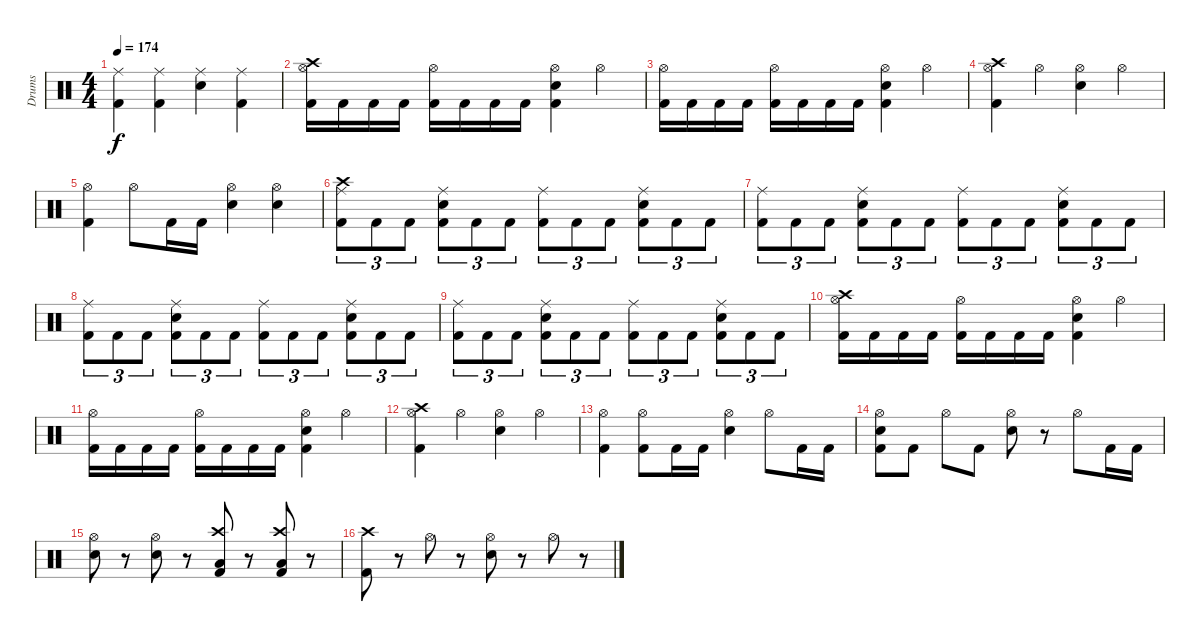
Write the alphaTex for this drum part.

\track ("Drums" "Drums") {instrument percussion}
\staff {score}
\articulation defaults
\ts (4 4)
\tempo 174
\clef neutral
\ks c
("Ride (middle)" "Kick (hit) 2").4{dy f} ("Ride (middle)" "Kick (hit) 2").4 ("Ride (middle)" "Snare (hit) 2").4 ("Ride (middle)" "Kick (hit) 2").4 |
("Hi-Hat (open)" "Crash high (hit)" "Kick (hit) 2").16 "Kick (hit) 2".16 "Kick (hit) 2".16 "Kick (hit) 2".16 ("Hi-Hat (open)" "Kick (hit) 2").16 "Kick (hit) 2".16 "Kick (hit) 2".16 "Kick (hit) 2".16 ("Hi-Hat (open)" "Snare (hit) 2" "Kick (hit) 2").4 "Hi-Hat (open)".4 |
("Hi-Hat (open)" "Kick (hit) 2").16 "Kick (hit) 2".16 "Kick (hit) 2".16 "Kick (hit) 2".16 ("Hi-Hat (open)" "Kick (hit) 2").16 "Kick (hit) 2".16 "Kick (hit) 2".16 "Kick (hit) 2".16 ("Hi-Hat (open)" "Snare (hit) 2" "Kick (hit) 2").4 "Hi-Hat (open)".4 |
("Hi-Hat (open)" "Crash high (hit)" "Kick (hit) 2").4 "Hi-Hat (open)".4 ("Hi-Hat (open)" "Snare (hit) 2").4 "Hi-Hat (open)".4 |
("Hi-Hat (open)" "Kick (hit) 2").4 "Hi-Hat (open)".8 "Kick (hit) 2".16 "Kick (hit) 2".16 ("Hi-Hat (open)" "Snare (hit) 2").4 ("Hi-Hat (open)" "Snare (hit) 2").4 |
("Crash high (hit)" "Ride (middle)" "Kick (hit) 2").8{tu (3 2)} "Kick (hit) 2".8{tu (3 2)} "Kick (hit) 2".8{tu (3 2)} ("Ride (middle)" "Snare (hit) 2" "Kick (hit) 2").8{tu (3 2)} "Kick (hit) 2".8{tu (3 2)} "Kick (hit) 2".8{tu (3 2)} ("Ride (middle)" "Kick (hit) 2").8{tu (3 2)} "Kick (hit) 2".8{tu (3 2)} "Kick (hit) 2".8{tu (3 2)} ("Ride (middle)" "Snare (hit) 2" "Kick (hit) 2").8{tu (3 2)} "Kick (hit) 2".8{tu (3 2)} "Kick (hit) 2".8{tu (3 2)} |
("Ride (middle)" "Kick (hit) 2").8{tu (3 2)} "Kick (hit) 2".8{tu (3 2)} "Kick (hit) 2".8{tu (3 2)} ("Ride (middle)" "Snare (hit) 2" "Kick (hit) 2").8{tu (3 2)} "Kick (hit) 2".8{tu (3 2)} "Kick (hit) 2".8{tu (3 2)} ("Ride (middle)" "Kick (hit) 2").8{tu (3 2)} "Kick (hit) 2".8{tu (3 2)} "Kick (hit) 2".8{tu (3 2)} ("Ride (middle)" "Snare (hit) 2" "Kick (hit) 2").8{tu (3 2)} "Kick (hit) 2".8{tu (3 2)} "Kick (hit) 2".8{tu (3 2)} |
("Ride (middle)" "Kick (hit) 2").8{tu (3 2)} "Kick (hit) 2".8{tu (3 2)} "Kick (hit) 2".8{tu (3 2)} ("Ride (middle)" "Snare (hit) 2" "Kick (hit) 2").8{tu (3 2)} "Kick (hit) 2".8{tu (3 2)} "Kick (hit) 2".8{tu (3 2)} ("Ride (middle)" "Kick (hit) 2").8{tu (3 2)} "Kick (hit) 2".8{tu (3 2)} "Kick (hit) 2".8{tu (3 2)} ("Ride (middle)" "Snare (hit) 2" "Kick (hit) 2").8{tu (3 2)} "Kick (hit) 2".8{tu (3 2)} "Kick (hit) 2".8{tu (3 2)} |
("Ride (middle)" "Kick (hit) 2").8{tu (3 2)} "Kick (hit) 2".8{tu (3 2)} "Kick (hit) 2".8{tu (3 2)} ("Ride (middle)" "Snare (hit) 2" "Kick (hit) 2").8{tu (3 2)} "Kick (hit) 2".8{tu (3 2)} "Kick (hit) 2".8{tu (3 2)} ("Ride (middle)" "Kick (hit) 2").8{tu (3 2)} "Kick (hit) 2".8{tu (3 2)} "Kick (hit) 2".8{tu (3 2)} ("Ride (middle)" "Snare (hit) 2" "Kick (hit) 2").8{tu (3 2)} "Kick (hit) 2".8{tu (3 2)} "Kick (hit) 2".8{tu (3 2)} |
("Hi-Hat (open)" "Crash high (hit)" "Kick (hit) 2").16 "Kick (hit) 2".16 "Kick (hit) 2".16 "Kick (hit) 2".16 ("Hi-Hat (open)" "Kick (hit) 2").16 "Kick (hit) 2".16 "Kick (hit) 2".16 "Kick (hit) 2".16 ("Hi-Hat (open)" "Snare (hit) 2" "Kick (hit) 2").4 "Hi-Hat (open)".4 |
("Hi-Hat (open)" "Kick (hit) 2").16 "Kick (hit) 2".16 "Kick (hit) 2".16 "Kick (hit) 2".16 ("Hi-Hat (open)" "Kick (hit) 2").16 "Kick (hit) 2".16 "Kick (hit) 2".16 "Kick (hit) 2".16 ("Hi-Hat (open)" "Snare (hit) 2" "Kick (hit) 2").4 "Hi-Hat (open)".4 |
("Hi-Hat (open)" "Crash high (hit)" "Kick (hit) 2").4 "Hi-Hat (open)".4 ("Hi-Hat (open)" "Snare (hit) 2").4 "Hi-Hat (open)".4 |
("Hi-Hat (open)" "Kick (hit) 2").4 ("Hi-Hat (open)" "Kick (hit) 2").8 "Kick (hit) 2".16 "Kick (hit) 2".16 ("Hi-Hat (open)" "Snare (hit) 2").4 "Hi-Hat (open)".8 "Kick (hit) 2".16 "Kick (hit) 2".16 |
("Hi-Hat (open)" "Snare (hit) 2" "Kick (hit) 2").8 "Kick (hit) 2".8 "Hi-Hat (open)".8 "Kick (hit) 2".8 ("Hi-Hat (open)" "Snare (hit) 2").8 r.8 "Hi-Hat (open)".8 "Kick (hit) 2".16 "Kick (hit) 2".16 |
("Hi-Hat (open)" "Snare (hit) 2").8 r.8 ("Hi-Hat (open)" "Snare (hit) 2").8 r.8 ("Crash high (hit)" "Low Tom (hit)" "Kick (hit) 2").8 r.8 ("Crash high (hit)" "Low Tom (hit)" "Kick (hit) 2").8 r.8 |
("Crash high (hit)" "Kick (hit) 2").8 r.8 "Hi-Hat (open)".8 r.8 ("Hi-Hat (open)" "Snare (hit) 2").8 r.8 "Hi-Hat (open)".8 r.8
